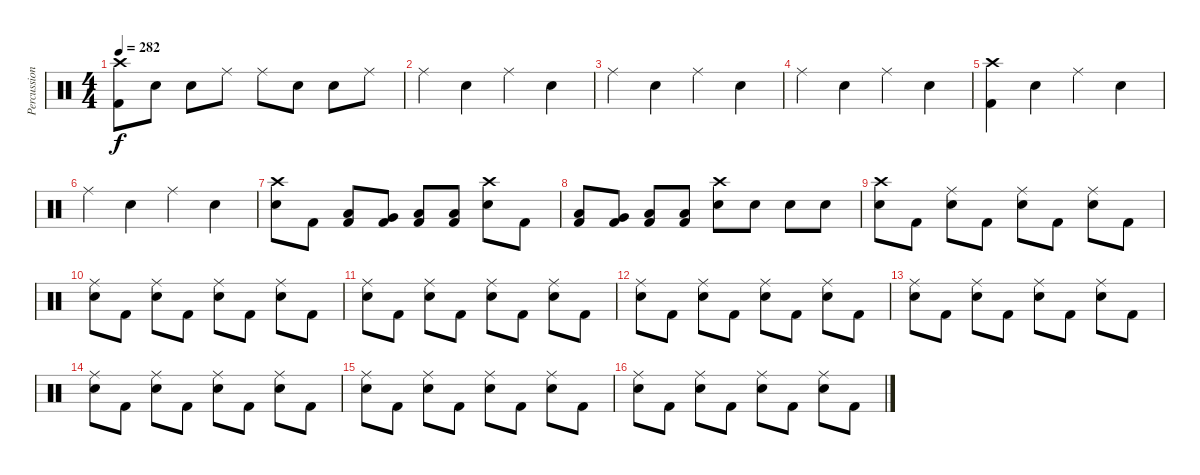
\track ("Percussion" "Percussion") {instrument percussion}
\staff {score}
\articulation defaults
\ts (4 4)
\tempo 282
\clef neutral
\ks c
("Kick (hit) 2" "Crash high (hit)").8{dy f} "Snare (hit)"{x}.8 "Snare (hit)"{x}.8 "Ride (middle)"{x}.8 "Ride (middle)".8 "Snare (hit)"{x}.8 "Snare (hit)"{x}.8 "Ride (middle)"{x}.8 |
"Ride (middle)".4 "Snare (hit)"{x}.4 "Ride (middle)".4 "Snare (hit)"{x}.4 |
"Ride (middle)".4 "Snare (hit)"{x}.4 "Ride (middle)".4 "Snare (hit)"{x}.4 |
"Ride (middle)".4 "Snare (hit)"{x}.4 "Ride (middle)".4 "Snare (hit)"{x}.4 |
("Kick (hit) 2" "Crash high (hit)").4 "Snare (hit)"{x}.4 "Ride (middle)".4 "Snare (hit)"{x}.4 |
"Ride (middle)".4 "Snare (hit)"{x}.4 "Ride (middle)".4 "Snare (hit)"{x}.4 |
("Snare (hit) 2" "Crash high (hit)").8 "Kick (hit) 2"{x}.8 ("Low Tom (hit)" "Kick (hit) 2").8 ("Very Low Tom (hit)" "Kick (hit) 2").8 ("Low Floor Tom (hit)" "Kick (hit) 2").8 ("Low Floor Tom (hit)" "Kick (hit) 2").8 ("Snare (hit) 2" "Crash high (hit)").8 "Kick (hit) 2"{x}.8 |
("Low Floor Tom (hit)" "Kick (hit) 2").8 ("Very Low Tom (hit)" "Kick (hit) 2").8 ("Low Floor Tom (hit)" "Kick (hit) 2").8 ("Low Floor Tom (hit)" "Kick (hit) 2").8 ("Snare (hit) 2" "Crash high (hit)").8 "Snare (hit)"{x}.8 "Snare (hit)"{x}.8 "Snare (hit)"{x}.8 |
("Snare (hit) 2" "Crash high (hit)").8 "Kick (hit) 2".8 ("Snare (hit) 2" "Ride (middle)").8 "Kick (hit) 2".8 ("Snare (hit) 2" "Ride (middle)").8 "Kick (hit) 2".8 ("Snare (hit) 2" "Ride (middle)").8 "Kick (hit) 2".8 |
("Snare (hit) 2" "Ride (middle)").8 "Kick (hit) 2".8 ("Snare (hit) 2" "Ride (middle)").8 "Kick (hit) 2".8 ("Snare (hit) 2" "Ride (middle)").8 "Kick (hit) 2".8 ("Snare (hit) 2" "Ride (middle)").8 "Kick (hit) 2".8 |
("Snare (hit) 2" "Ride (middle)").8 "Kick (hit) 2".8 ("Snare (hit) 2" "Ride (middle)").8 "Kick (hit) 2".8 ("Snare (hit) 2" "Ride (middle)").8 "Kick (hit) 2".8 ("Snare (hit) 2" "Ride (middle)").8 "Kick (hit) 2".8 |
("Snare (hit) 2" "Ride (middle)").8 "Kick (hit) 2".8 ("Snare (hit) 2" "Ride (middle)").8 "Kick (hit) 2".8 ("Snare (hit) 2" "Ride (middle)").8 "Kick (hit) 2".8 ("Snare (hit) 2" "Ride (middle)").8 "Kick (hit) 2".8 |
("Snare (hit) 2" "Ride (middle)").8 "Kick (hit) 2".8 ("Snare (hit) 2" "Ride (middle)").8 "Kick (hit) 2".8 ("Snare (hit) 2" "Ride (middle)").8 "Kick (hit) 2".8 ("Snare (hit) 2" "Ride (middle)").8 "Kick (hit) 2".8 |
("Snare (hit) 2" "Ride (middle)").8 "Kick (hit) 2".8 ("Snare (hit) 2" "Ride (middle)").8 "Kick (hit) 2".8 ("Snare (hit) 2" "Ride (middle)").8 "Kick (hit) 2".8 ("Snare (hit) 2" "Ride (middle)").8 "Kick (hit) 2".8 |
("Snare (hit) 2" "Ride (middle)").8 "Kick (hit) 2".8 ("Snare (hit) 2" "Ride (middle)").8 "Kick (hit) 2".8 ("Snare (hit) 2" "Ride (middle)").8 "Kick (hit) 2".8 ("Snare (hit) 2" "Ride (middle)").8 "Kick (hit) 2".8 |
("Snare (hit) 2" "Ride (middle)").8 "Kick (hit) 2".8 ("Snare (hit) 2" "Ride (middle)").8 "Kick (hit) 2".8 ("Snare (hit) 2" "Ride (middle)").8 "Kick (hit) 2".8 ("Snare (hit) 2" "Ride (middle)").8 "Kick (hit) 2".8
